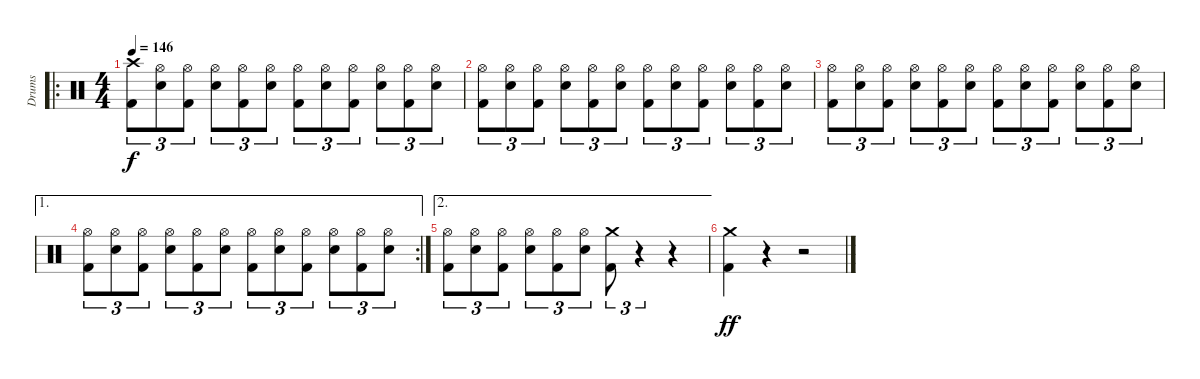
\track ("Drums" "Drums") {instrument percussion}
\staff {score}
\articulation defaults
\ro
\ts (4 4)
\tempo 146
\clef neutral
\ks c
("Crash high (hit)" "Kick (hit) 2").8{tu (3 2) dy f} ("Hi-Hat (open)" "Snare (hit) 2").8{tu (3 2)} ("Hi-Hat (open)" "Kick (hit) 2").8{tu (3 2)} ("Hi-Hat (open)" "Snare (hit) 2").8{tu (3 2)} ("Hi-Hat (open)" "Kick (hit) 2").8{tu (3 2)} ("Hi-Hat (open)" "Snare (hit) 2").8{tu (3 2)} ("Hi-Hat (open)" "Kick (hit) 2").8{tu (3 2)} ("Hi-Hat (open)" "Snare (hit) 2").8{tu (3 2)} ("Hi-Hat (open)" "Kick (hit) 2").8{tu (3 2)} ("Hi-Hat (open)" "Snare (hit) 2").8{tu (3 2)} ("Hi-Hat (open)" "Kick (hit) 2").8{tu (3 2)} ("Hi-Hat (open)" "Snare (hit) 2").8{tu (3 2)} |
("Hi-Hat (open)" "Kick (hit) 2").8{tu (3 2)} ("Hi-Hat (open)" "Snare (hit) 2").8{tu (3 2)} ("Hi-Hat (open)" "Kick (hit) 2").8{tu (3 2)} ("Hi-Hat (open)" "Snare (hit) 2").8{tu (3 2)} ("Hi-Hat (open)" "Kick (hit) 2").8{tu (3 2)} ("Hi-Hat (open)" "Snare (hit) 2").8{tu (3 2)} ("Hi-Hat (open)" "Kick (hit) 2").8{tu (3 2)} ("Hi-Hat (open)" "Snare (hit) 2").8{tu (3 2)} ("Hi-Hat (open)" "Kick (hit) 2").8{tu (3 2)} ("Hi-Hat (open)" "Snare (hit) 2").8{tu (3 2)} ("Hi-Hat (open)" "Kick (hit) 2").8{tu (3 2)} ("Hi-Hat (open)" "Snare (hit) 2").8{tu (3 2)} |
("Hi-Hat (open)" "Kick (hit) 2").8{tu (3 2)} ("Hi-Hat (open)" "Snare (hit) 2").8{tu (3 2)} ("Hi-Hat (open)" "Kick (hit) 2").8{tu (3 2)} ("Hi-Hat (open)" "Snare (hit) 2").8{tu (3 2)} ("Hi-Hat (open)" "Kick (hit) 2").8{tu (3 2)} ("Hi-Hat (open)" "Snare (hit) 2").8{tu (3 2)} ("Hi-Hat (open)" "Kick (hit) 2").8{tu (3 2)} ("Hi-Hat (open)" "Snare (hit) 2").8{tu (3 2)} ("Hi-Hat (open)" "Kick (hit) 2").8{tu (3 2)} ("Hi-Hat (open)" "Snare (hit) 2").8{tu (3 2)} ("Hi-Hat (open)" "Kick (hit) 2").8{tu (3 2)} ("Hi-Hat (open)" "Snare (hit) 2").8{tu (3 2)} |
\ae 1
\rc 2
("Hi-Hat (open)" "Kick (hit) 2").8{tu (3 2)} ("Hi-Hat (open)" "Snare (hit) 2").8{tu (3 2)} ("Hi-Hat (open)" "Kick (hit) 2").8{tu (3 2)} ("Hi-Hat (open)" "Snare (hit) 2").8{tu (3 2)} ("Hi-Hat (open)" "Kick (hit) 2").8{tu (3 2)} ("Hi-Hat (open)" "Snare (hit) 2").8{tu (3 2)} ("Hi-Hat (open)" "Kick (hit) 2").8{tu (3 2)} ("Hi-Hat (open)" "Snare (hit) 2").8{tu (3 2)} ("Hi-Hat (open)" "Kick (hit) 2").8{tu (3 2)} ("Hi-Hat (open)" "Snare (hit) 2").8{tu (3 2)} ("Hi-Hat (open)" "Kick (hit) 2").8{tu (3 2)} ("Hi-Hat (open)" "Snare (hit) 2").8{tu (3 2)} |
\ae 2
("Hi-Hat (open)" "Kick (hit) 2").8{tu (3 2)} ("Hi-Hat (open)" "Snare (hit) 2").8{tu (3 2)} ("Hi-Hat (open)" "Kick (hit) 2").8{tu (3 2)} ("Hi-Hat (open)" "Snare (hit) 2").8{tu (3 2)} ("Hi-Hat (open)" "Kick (hit) 2").8{tu (3 2)} ("Hi-Hat (open)" "Snare (hit) 2").8{tu (3 2)} ("Crash medium (hit)" "Kick (hit) 2").8{tu (3 2)} r.4{tu (3 2)} r.4 |
("Crash medium (hit)" "Kick (hit) 2").4{dy ff} r.4 r.2
